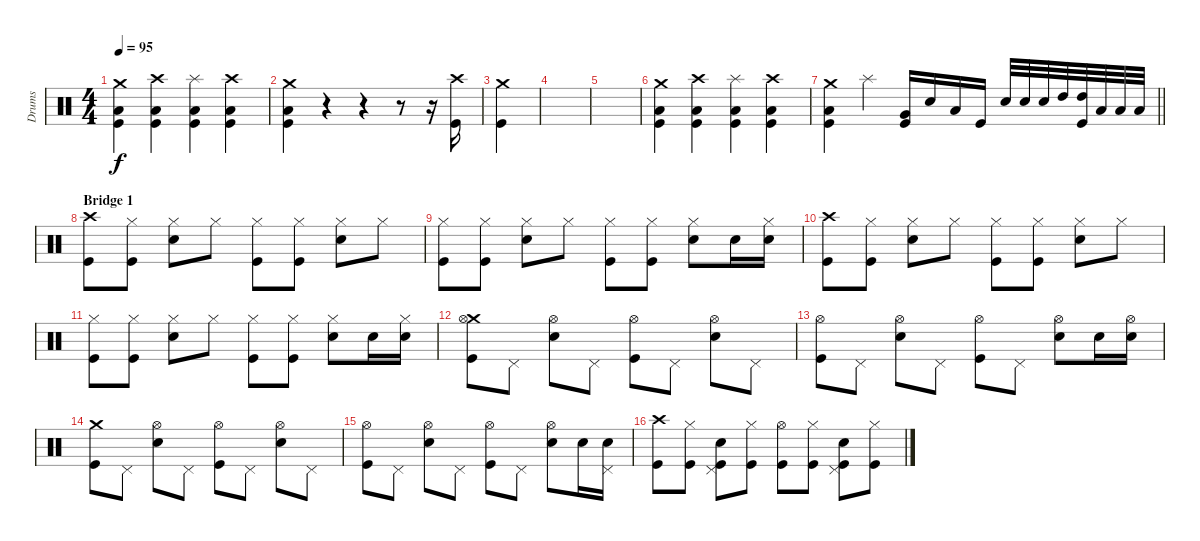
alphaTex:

\track ("Drums" "Drums") {instrument percussion}
\staff {score}
\articulation defaults
\ts (4 4)
\tempo 95
\clef neutral
\ks c
("Crash medium (hit)" "Low Floor Tom (hit)" "Kick (hit)").4{dy f} ("Crash high (hit)" "Low Floor Tom (hit)" "Kick (hit)").4 ("Splash (hit)" "Low Floor Tom (hit)" "Kick (hit)").4 ("Crash high (hit)" "Low Floor Tom (hit)" "Kick (hit)").4 |
("Crash medium (hit)" "Low Floor Tom (hit)" "Kick (hit)").4 r.4 r.4 r.8 r.16 ("Crash high (hit)" "Kick (hit)").16 |
("Crash medium (hit)" "Kick (hit)").4 |
|
|
("Crash medium (hit)" "Low Floor Tom (hit)" "Kick (hit)").4 ("Crash high (hit)" "Low Floor Tom (hit)" "Kick (hit)").4 ("Splash (hit)" "Low Floor Tom (hit)" "Kick (hit)").4 ("Crash high (hit)" "Low Floor Tom (hit)" "Kick (hit)").4 |
\barLineRight lightlight
("Crash medium (hit)" "Low Floor Tom (hit)" "Kick (hit)").4 "Splash (hit)".4 ("Very Low Tom (hit)" "Kick (hit)").16 "Snare (hit) 2".16 "Low Tom (hit)".16 "Kick (hit)".16 "Snare (hit) 2".32 "Snare (hit) 2".32 "Snare (hit) 2".32 "High Tom (hit)".32 ("High Tom (hit)" "Kick (hit)").32 "Low Tom (hit)".32 "Low Tom (hit)".32 "Low Floor Tom (hit)".32 |
\section ("" "Bridge 1")
("Crash high (hit)" "Kick (hit)").8 ("Hi-Hat (closed)" "Kick (hit)").8 ("Hi-Hat (closed)" "Snare (hit) 2").8 "Hi-Hat (closed)".8 ("Hi-Hat (closed)" "Kick (hit)").8 ("Hi-Hat (closed)" "Kick (hit)").8 ("Hi-Hat (closed)" "Snare (hit) 2").8 "Hi-Hat (closed)".8 |
("Hi-Hat (closed)" "Kick (hit)").8 ("Hi-Hat (closed)" "Kick (hit)").8 ("Hi-Hat (closed)" "Snare (hit) 2").8 "Hi-Hat (closed)".8 ("Hi-Hat (closed)" "Kick (hit)").8 ("Hi-Hat (closed)" "Kick (hit)").8 ("Hi-Hat (closed)" "Snare (hit) 2").8 "Snare (hit) 2".16 ("Hi-Hat (closed)" "Snare (hit) 2").16 |
("Crash high (hit)" "Kick (hit)").8 ("Hi-Hat (closed)" "Kick (hit)").8 ("Hi-Hat (closed)" "Snare (hit) 2").8 "Hi-Hat (closed)".8 ("Hi-Hat (closed)" "Kick (hit)").8 ("Hi-Hat (closed)" "Kick (hit)").8 ("Hi-Hat (closed)" "Snare (hit) 2").8 "Hi-Hat (closed)".8 |
("Hi-Hat (closed)" "Kick (hit)").8 ("Hi-Hat (closed)" "Kick (hit)").8 ("Hi-Hat (closed)" "Snare (hit) 2").8 "Hi-Hat (closed)".8 ("Hi-Hat (closed)" "Kick (hit)").8 ("Hi-Hat (closed)" "Kick (hit)").8 ("Hi-Hat (closed)" "Snare (hit) 2").8 "Snare (hit) 2".16 ("Hi-Hat (closed)" "Snare (hit) 2").16 |
("Crash medium (hit)" "Hi-Hat (open)" "Kick (hit)").8 "Pedal Hi-Hat (hit)".8 ("Hi-Hat (open)" "Snare (hit) 2").8 "Pedal Hi-Hat (hit)".8 ("Hi-Hat (open)" "Kick (hit)").8 "Pedal Hi-Hat (hit)".8 ("Hi-Hat (open)" "Snare (hit) 2").8 "Pedal Hi-Hat (hit)".8 |
("Hi-Hat (open)" "Kick (hit)").8 "Pedal Hi-Hat (hit)".8 ("Hi-Hat (open)" "Snare (hit) 2").8 "Pedal Hi-Hat (hit)".8 ("Hi-Hat (open)" "Kick (hit)").8 "Pedal Hi-Hat (hit)".8 ("Hi-Hat (open)" "Snare (hit) 2").8 "Snare (hit) 2".16 ("Hi-Hat (open)" "Snare (hit) 2").16 |
("Crash medium (hit)" "Kick (hit)").8 "Pedal Hi-Hat (hit)".8 ("Hi-Hat (open)" "Snare (hit) 2").8 "Pedal Hi-Hat (hit)".8 ("Hi-Hat (open)" "Kick (hit)").8 "Pedal Hi-Hat (hit)".8 ("Hi-Hat (open)" "Snare (hit) 2").8 "Pedal Hi-Hat (hit)".8 |
("Hi-Hat (open)" "Kick (hit)").8 "Pedal Hi-Hat (hit)".8 ("Hi-Hat (open)" "Snare (hit) 2").8 "Pedal Hi-Hat (hit)".8 ("Hi-Hat (open)" "Kick (hit)").8 "Pedal Hi-Hat (hit)".8 ("Hi-Hat (open)" "Snare (hit) 2").8 "Snare (hit) 2".16 ("Pedal Hi-Hat (hit)" "Snare (hit) 2").16 |
("Crash high (hit)" "Kick (hit)").8 ("Hi-Hat (closed)" "Kick (hit)").8 ("Pedal Hi-Hat (hit)" "Snare (hit) 2" "Kick (hit)").8 ("Hi-Hat (closed)" "Kick (hit)").8 ("Hi-Hat (open)" "Kick (hit)").8 ("Hi-Hat (closed)" "Kick (hit)").8 ("Pedal Hi-Hat (hit)" "Snare (hit) 2" "Kick (hit)").8 ("Hi-Hat (closed)" "Kick (hit)").8
